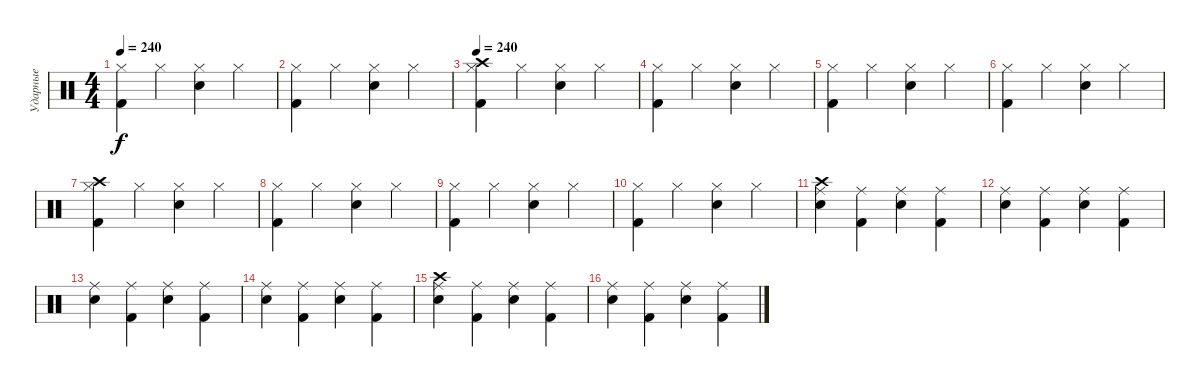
\track ("Ударные" "Ударные") {instrument percussion}
\staff {score}
\articulation defaults
\ts (4 4)
\tempo 240
\clef neutral
\ks c
("Kick (hit) 2" "Hi-Hat (closed)").4{dy f} "Hi-Hat (closed)".4 ("Electric Snare (hit)" "Hi-Hat (closed)").4 "Hi-Hat (closed)".4 |
("Kick (hit) 2" "Hi-Hat (closed)").4 "Hi-Hat (closed)".4 ("Electric Snare (hit)" "Hi-Hat (closed)").4 "Hi-Hat (closed)".4 |
\tempo 240
("Kick (hit) 2" "Hi-Hat (closed)" "Crash high (hit)").4 "Hi-Hat (closed)".4 ("Electric Snare (hit)" "Hi-Hat (closed)").4 "Hi-Hat (closed)".4 |
("Kick (hit) 2" "Hi-Hat (closed)").4 "Hi-Hat (closed)".4 ("Electric Snare (hit)" "Hi-Hat (closed)").4 "Hi-Hat (closed)".4 |
("Kick (hit) 2" "Hi-Hat (closed)").4 "Hi-Hat (closed)".4 ("Electric Snare (hit)" "Hi-Hat (closed)").4 "Hi-Hat (closed)".4 |
("Kick (hit) 2" "Hi-Hat (closed)").4 "Hi-Hat (closed)".4 ("Electric Snare (hit)" "Hi-Hat (closed)").4 "Hi-Hat (closed)".4 |
("Kick (hit) 2" "Hi-Hat (closed)" "Crash high (hit)").4 "Hi-Hat (closed)".4 ("Electric Snare (hit)" "Hi-Hat (closed)").4 "Hi-Hat (closed)".4 |
("Kick (hit) 2" "Hi-Hat (closed)").4 "Hi-Hat (closed)".4 ("Electric Snare (hit)" "Hi-Hat (closed)").4 "Hi-Hat (closed)".4 |
("Kick (hit) 2" "Hi-Hat (closed)").4 "Hi-Hat (closed)".4 ("Electric Snare (hit)" "Hi-Hat (closed)").4 "Hi-Hat (closed)".4 |
("Kick (hit) 2" "Hi-Hat (closed)").4 "Hi-Hat (closed)".4 ("Electric Snare (hit)" "Hi-Hat (closed)").4 "Hi-Hat (closed)".4 |
("Electric Snare (hit)" "Crash high (hit)" "Ride (middle)").4 ("Kick (hit) 2" "Ride (middle)").4 ("Electric Snare (hit)" "Ride (middle)").4 ("Kick (hit) 2" "Ride (middle)").4 |
("Electric Snare (hit)" "Ride (middle)").4 ("Kick (hit) 2" "Ride (middle)").4 ("Electric Snare (hit)" "Ride (middle)").4 ("Kick (hit) 2" "Ride (middle)").4 |
("Electric Snare (hit)" "Ride (middle)").4 ("Kick (hit) 2" "Ride (middle)").4 ("Electric Snare (hit)" "Ride (middle)").4 ("Kick (hit) 2" "Ride (middle)").4 |
("Electric Snare (hit)" "Ride (middle)").4 ("Kick (hit) 2" "Ride (middle)").4 ("Electric Snare (hit)" "Ride (middle)").4 ("Kick (hit) 2" "Ride (middle)").4 |
("Electric Snare (hit)" "Crash high (hit)" "Ride (middle)").4 ("Kick (hit) 2" "Ride (middle)").4 ("Electric Snare (hit)" "Ride (middle)").4 ("Kick (hit) 2" "Ride (middle)").4 |
("Electric Snare (hit)" "Ride (middle)").4 ("Kick (hit) 2" "Ride (middle)").4 ("Electric Snare (hit)" "Ride (middle)").4 ("Kick (hit) 2" "Ride (middle)").4
